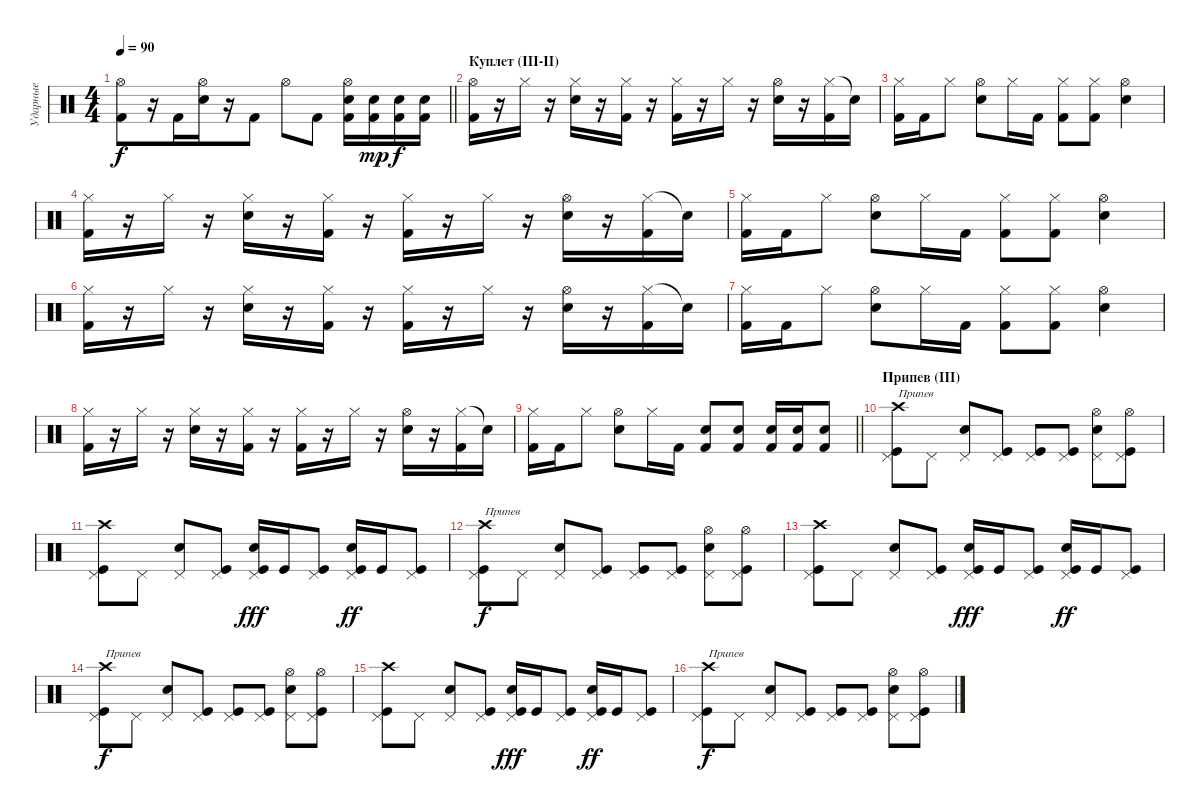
\track ("Ударные" "Ударные") {instrument percussion}
\staff {score}
\articulation defaults
\ts (4 4)
\tempo 90
\clef neutral
\barLineRight lightlight
\ks c
("Hi-Hat (open)" "Kick (hit) 2").8{dy f} r.16 "Kick (hit) 2".16{beam merge} ("Hi-Hat (open)" "Electric Snare (hit)").16 r.16 "Kick (hit) 2".8 "Hi-Hat (open)".8 "Kick (hit) 2".8 ("Hi-Hat (open)" "Snare (hit) 2" "Kick (hit) 2").16 ("Snare (hit) 2" "Kick (hit) 2").16{dy mp} ("Snare (hit) 2" "Kick (hit) 2").16{dy f} ("Snare (hit) 2" "Kick (hit) 2").16 |
\section ("" "Куплет (III-II)")
("Hi-Hat (open)" "Kick (hit) 2").16 r.16 "Hi-Hat (closed)".16 r.16 ("Hi-Hat (closed)" "Snare (hit) 2").16 r.16 ("Hi-Hat (closed)" "Kick (hit) 2").16 r.16 ("Hi-Hat (closed)" "Kick (hit) 2").16 r.16 "Hi-Hat (closed)".16 r.16 ("Hi-Hat (open)" "Snare (hit) 2").16 r.16 ("Hi-Hat (closed)" "Kick (hit) 2").16 "Snare (hit)"{t}.16 |
("Hi-Hat (closed)" "Kick (hit) 2").16 "Kick (hit) 2".16 "Hi-Hat (closed)".8 ("Hi-Hat (open)" "Snare (hit) 2").8 "Hi-Hat (closed)".16 "Kick (hit) 2".16 ("Hi-Hat (closed)" "Kick (hit) 2").8 ("Hi-Hat (closed)" "Kick (hit) 2").8 ("Hi-Hat (open)" "Snare (hit) 2").4 |
("Hi-Hat (closed)" "Kick (hit) 2").16 r.16 "Hi-Hat (closed)".16 r.16 ("Hi-Hat (closed)" "Snare (hit) 2").16 r.16 ("Hi-Hat (closed)" "Kick (hit) 2").16 r.16 ("Hi-Hat (closed)" "Kick (hit) 2").16 r.16 "Hi-Hat (closed)".16 r.16 ("Hi-Hat (open)" "Snare (hit) 2").16 r.16 ("Hi-Hat (closed)" "Kick (hit) 2").16 "Snare (hit)"{t}.16 |
("Hi-Hat (closed)" "Kick (hit) 2").16 "Kick (hit) 2".16 "Hi-Hat (closed)".8 ("Hi-Hat (open)" "Snare (hit) 2").8 "Hi-Hat (closed)".16 "Kick (hit) 2".16 ("Hi-Hat (closed)" "Kick (hit) 2").8 ("Hi-Hat (closed)" "Kick (hit) 2").8 ("Hi-Hat (open)" "Snare (hit) 2").4 |
("Hi-Hat (closed)" "Kick (hit) 2").16 r.16 "Hi-Hat (closed)".16 r.16 ("Hi-Hat (closed)" "Snare (hit) 2").16 r.16 ("Hi-Hat (closed)" "Kick (hit) 2").16 r.16 ("Hi-Hat (closed)" "Kick (hit) 2").16 r.16 "Hi-Hat (closed)".16 r.16 ("Hi-Hat (open)" "Snare (hit) 2").16 r.16 ("Hi-Hat (closed)" "Kick (hit) 2").16 "Snare (hit)"{t}.16 |
("Hi-Hat (closed)" "Kick (hit) 2").16 "Kick (hit) 2".16 "Hi-Hat (closed)".8 ("Hi-Hat (open)" "Snare (hit) 2").8 "Hi-Hat (closed)".16 "Kick (hit) 2".16 ("Hi-Hat (closed)" "Kick (hit) 2").8 ("Hi-Hat (closed)" "Kick (hit) 2").8 ("Hi-Hat (open)" "Snare (hit) 2").4 |
("Hi-Hat (closed)" "Kick (hit) 2").16 r.16 "Hi-Hat (closed)".16 r.16 ("Hi-Hat (closed)" "Snare (hit) 2").16 r.16 ("Hi-Hat (closed)" "Kick (hit) 2").16 r.16 ("Hi-Hat (closed)" "Kick (hit) 2").16 r.16 "Hi-Hat (closed)".16 r.16 ("Hi-Hat (open)" "Snare (hit) 2").16 r.16 ("Hi-Hat (closed)" "Kick (hit) 2").16 "Snare (hit)"{t}.16 |
\barLineRight lightlight
("Hi-Hat (closed)" "Kick (hit) 2").16 "Kick (hit) 2".16 "Hi-Hat (closed)".8 ("Hi-Hat (open)" "Snare (hit) 2").8 "Hi-Hat (closed)".16 "Kick (hit) 2".16 ("Snare (hit) 2" "Kick (hit) 2").8 ("Snare (hit) 2" "Kick (hit) 2").8 ("Snare (hit) 2" "Kick (hit) 2").16 ("Snare (hit) 2" "Kick (hit) 2").16 ("Snare (hit) 2" "Kick (hit) 2").8 |
\section ("" "Припев (III)")
("Crash high (hit)" "Kick (hit)" "Pedal Hi-Hat (hit)").8{txt "Припев"} "Pedal Hi-Hat (hit)".8 ("Snare (hit) 2" "Pedal Hi-Hat (hit)").8 ("Kick (hit)" "Pedal Hi-Hat (hit)").8 ("Kick (hit)" "Pedal Hi-Hat (hit)").8 ("Kick (hit)" "Pedal Hi-Hat (hit)").8 ("Hi-Hat (open)" "Snare (hit) 2" "Pedal Hi-Hat (hit)").8 ("Hi-Hat (open)" "Kick (hit)" "Pedal Hi-Hat (hit)").8 |
("Crash high (hit)" "Kick (hit)" "Pedal Hi-Hat (hit)").8 "Pedal Hi-Hat (hit)".8 ("Snare (hit) 2" "Pedal Hi-Hat (hit)").8 ("Kick (hit)" "Pedal Hi-Hat (hit)").8 ("Kick (hit)" "Snare (hit) 2" "Pedal Hi-Hat (hit)").16{dy fff} "Kick (hit)".16 ("Kick (hit)" "Pedal Hi-Hat (hit)").8 ("Kick (hit)" "Snare (hit) 2" "Pedal Hi-Hat (hit)").16{dy ff} "Kick (hit)".16 ("Kick (hit)" "Pedal Hi-Hat (hit)").8 |
("Crash high (hit)" "Kick (hit)" "Pedal Hi-Hat (hit)").8{txt "Припев" dy f} "Pedal Hi-Hat (hit)".8 ("Snare (hit) 2" "Pedal Hi-Hat (hit)").8 ("Kick (hit)" "Pedal Hi-Hat (hit)").8 ("Kick (hit)" "Pedal Hi-Hat (hit)").8 ("Kick (hit)" "Pedal Hi-Hat (hit)").8 ("Hi-Hat (open)" "Snare (hit) 2" "Pedal Hi-Hat (hit)").8 ("Hi-Hat (open)" "Kick (hit)" "Pedal Hi-Hat (hit)").8 |
("Crash high (hit)" "Kick (hit)" "Pedal Hi-Hat (hit)").8 "Pedal Hi-Hat (hit)".8 ("Snare (hit) 2" "Pedal Hi-Hat (hit)").8 ("Kick (hit)" "Pedal Hi-Hat (hit)").8 ("Kick (hit)" "Snare (hit) 2" "Pedal Hi-Hat (hit)").16{dy fff} "Kick (hit)".16 ("Kick (hit)" "Pedal Hi-Hat (hit)").8 ("Kick (hit)" "Snare (hit) 2" "Pedal Hi-Hat (hit)").16{dy ff} "Kick (hit)".16 ("Kick (hit)" "Pedal Hi-Hat (hit)").8 |
("Crash high (hit)" "Kick (hit)" "Pedal Hi-Hat (hit)").8{txt "Припев" dy f} "Pedal Hi-Hat (hit)".8 ("Snare (hit) 2" "Pedal Hi-Hat (hit)").8 ("Kick (hit)" "Pedal Hi-Hat (hit)").8 ("Kick (hit)" "Pedal Hi-Hat (hit)").8 ("Kick (hit)" "Pedal Hi-Hat (hit)").8 ("Hi-Hat (open)" "Snare (hit) 2" "Pedal Hi-Hat (hit)").8 ("Hi-Hat (open)" "Kick (hit)" "Pedal Hi-Hat (hit)").8 |
("Crash high (hit)" "Kick (hit)" "Pedal Hi-Hat (hit)").8 "Pedal Hi-Hat (hit)".8 ("Snare (hit) 2" "Pedal Hi-Hat (hit)").8 ("Kick (hit)" "Pedal Hi-Hat (hit)").8 ("Kick (hit)" "Snare (hit) 2" "Pedal Hi-Hat (hit)").16{dy fff} "Kick (hit)".16 ("Kick (hit)" "Pedal Hi-Hat (hit)").8 ("Kick (hit)" "Snare (hit) 2" "Pedal Hi-Hat (hit)").16{dy ff} "Kick (hit)".16 ("Kick (hit)" "Pedal Hi-Hat (hit)").8 |
("Crash high (hit)" "Kick (hit)" "Pedal Hi-Hat (hit)").8{txt "Припев" dy f} "Pedal Hi-Hat (hit)".8 ("Snare (hit) 2" "Pedal Hi-Hat (hit)").8 ("Kick (hit)" "Pedal Hi-Hat (hit)").8 ("Kick (hit)" "Pedal Hi-Hat (hit)").8 ("Kick (hit)" "Pedal Hi-Hat (hit)").8 ("Hi-Hat (open)" "Snare (hit) 2" "Pedal Hi-Hat (hit)").8 ("Hi-Hat (open)" "Kick (hit)" "Pedal Hi-Hat (hit)").8
